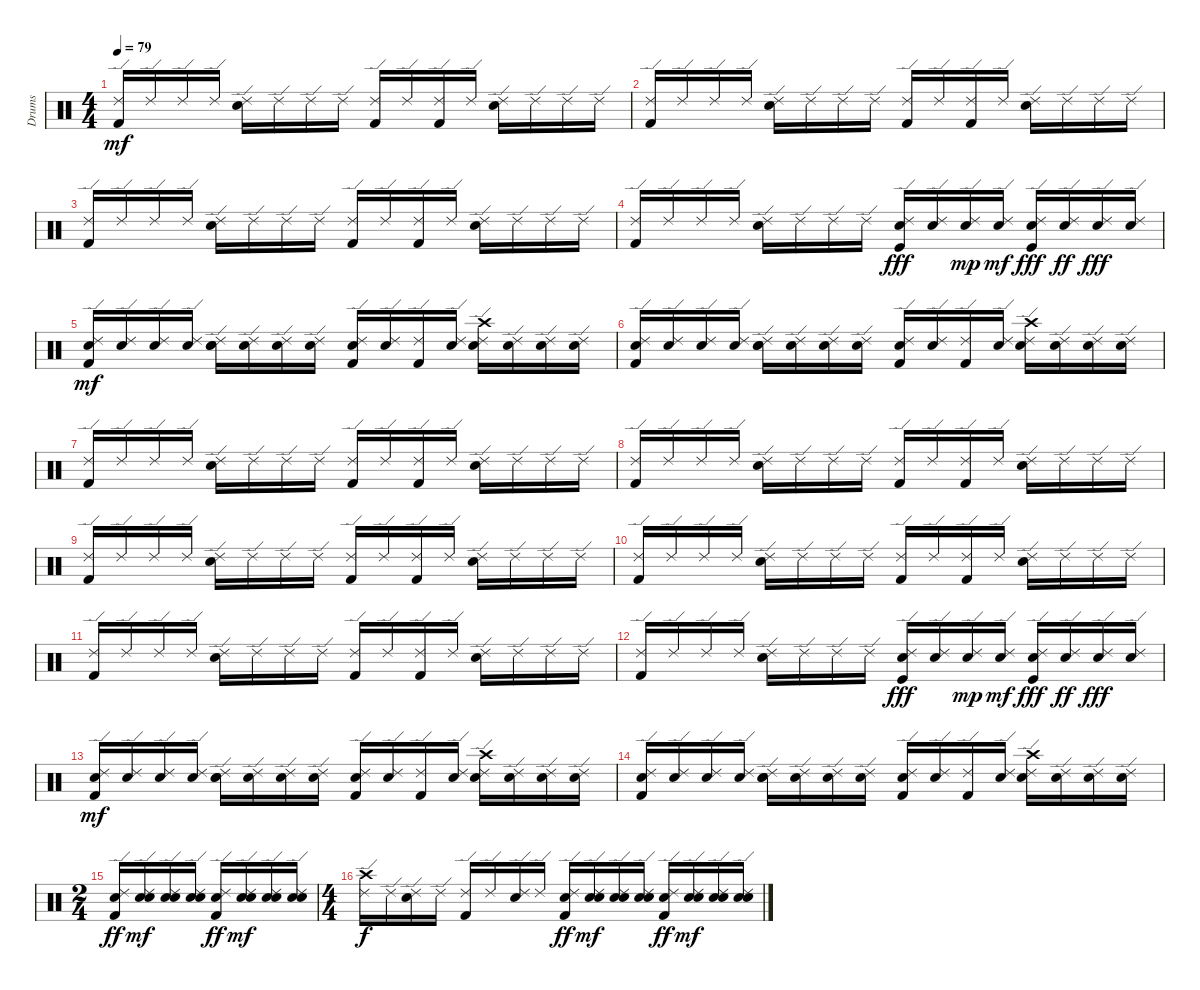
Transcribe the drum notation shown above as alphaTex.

\track ("Drums" "Drums") {instrument percussion}
\staff {score}
\articulation defaults
\ts (4 4)
\tempo 79
\clef neutral
\ks c
("Kick (hit) 2" "Ride (edge) 2").16{dy mf} "Ride (edge) 2".16 "Ride (edge) 2".16 "Ride (edge) 2".16 ("Electric Snare (hit)" "Ride (edge) 2").16 "Ride (edge) 2".16 "Ride (edge) 2".16 "Ride (edge) 2".16 ("Kick (hit) 2" "Ride (edge) 2").16 "Ride (edge) 2".16 ("Kick (hit) 2" "Ride (edge) 2").16 "Ride (edge) 2".16 ("Electric Snare (hit)" "Ride (edge) 2").16 "Ride (edge) 2".16 "Ride (edge) 2".16 "Ride (edge) 2".16 |
("Kick (hit) 2" "Ride (edge) 2").16 "Ride (edge) 2".16 "Ride (edge) 2".16 "Ride (edge) 2".16 ("Electric Snare (hit)" "Ride (edge) 2").16 "Ride (edge) 2".16 "Ride (edge) 2".16 "Ride (edge) 2".16 ("Kick (hit) 2" "Ride (edge) 2").16 "Ride (edge) 2".16 ("Kick (hit) 2" "Ride (edge) 2").16 "Ride (edge) 2".16 ("Electric Snare (hit)" "Ride (edge) 2").16 "Ride (edge) 2".16 "Ride (edge) 2".16 "Ride (edge) 2".16 |
("Kick (hit) 2" "Ride (edge) 2").16 "Ride (edge) 2".16 "Ride (edge) 2".16 "Ride (edge) 2".16 ("Electric Snare (hit)" "Ride (edge) 2").16 "Ride (edge) 2".16 "Ride (edge) 2".16 "Ride (edge) 2".16 ("Kick (hit) 2" "Ride (edge) 2").16 "Ride (edge) 2".16 ("Kick (hit) 2" "Ride (edge) 2").16 "Ride (edge) 2".16 ("Electric Snare (hit)" "Ride (edge) 2").16 "Ride (edge) 2".16 "Ride (edge) 2".16 "Ride (edge) 2".16 |
("Kick (hit) 2" "Ride (edge) 2").16 "Ride (edge) 2".16 "Ride (edge) 2".16 "Ride (edge) 2".16 ("Electric Snare (hit)" "Ride (edge) 2").16 "Ride (edge) 2".16 "Ride (edge) 2".16 "Ride (edge) 2".16 ("Electric Snare (hit)" "Ride (edge) 2" "Kick (hit)").16{dy fff} ("Electric Snare (hit)" "Ride (edge) 2").16 ("Electric Snare (hit)" "Ride (edge) 2").16{dy mp} ("Electric Snare (hit)" "Ride (edge) 2").16{dy mf} ("Electric Snare (hit)" "Ride (edge) 2" "Kick (hit)").16{dy fff} ("Electric Snare (hit)" "Ride (edge) 2").16{dy ff} ("Electric Snare (hit)" "Ride (edge) 2").16{dy fff} ("Electric Snare (hit)" "Ride (edge) 2").16 |
("Kick (hit) 2" "Ride (edge) 2" "Electric Snare (hit)").16{dy mf} ("Snare (hit) 2" "Ride (edge) 2").16 ("Snare (hit) 2" "Ride (edge) 2").16 ("Snare (hit) 2" "Ride (edge) 2").16 ("Electric Snare (hit)" "Ride (edge) 2" "Electric Snare (hit)").16 ("Snare (hit) 2" "Ride (edge) 2").16 ("Snare (hit) 2" "Ride (edge) 2").16 ("Snare (hit) 2" "Ride (edge) 2").16 ("Kick (hit) 2" "Ride (edge) 2" "Electric Snare (hit)").16 ("Snare (hit) 2" "Ride (edge) 2").16 ("Kick (hit) 2" "Ride (edge) 2").16 ("Snare (hit) 2" "Ride (edge) 2").16 ("Electric Snare (hit)" "Ride (edge) 2" "Crash high (hit)").16 ("Snare (hit) 2" "Ride (edge) 2").16 ("Snare (hit) 2" "Ride (edge) 2").16 ("Snare (hit) 2" "Ride (edge) 2").16 |
("Kick (hit) 2" "Ride (edge) 2" "Electric Snare (hit)").16 ("Snare (hit) 2" "Ride (edge) 2").16 ("Snare (hit) 2" "Ride (edge) 2").16 ("Snare (hit) 2" "Ride (edge) 2").16 ("Electric Snare (hit)" "Ride (edge) 2" "Electric Snare (hit)").16 ("Snare (hit) 2" "Ride (edge) 2").16 ("Snare (hit) 2" "Ride (edge) 2").16 ("Snare (hit) 2" "Ride (edge) 2").16 ("Kick (hit) 2" "Ride (edge) 2" "Electric Snare (hit)").16 ("Snare (hit) 2" "Ride (edge) 2").16 ("Kick (hit) 2" "Ride (edge) 2").16 ("Snare (hit) 2" "Ride (edge) 2").16 ("Electric Snare (hit)" "Ride (edge) 2" "Crash high (hit)").16 ("Snare (hit) 2" "Ride (edge) 2").16 ("Snare (hit) 2" "Ride (edge) 2").16 ("Snare (hit) 2" "Ride (edge) 2").16 |
("Kick (hit) 2" "Ride (edge) 2").16 "Ride (edge) 2".16 "Ride (edge) 2".16 "Ride (edge) 2".16 ("Electric Snare (hit)" "Ride (edge) 2").16 "Ride (edge) 2".16 "Ride (edge) 2".16 "Ride (edge) 2".16 ("Kick (hit) 2" "Ride (edge) 2").16 "Ride (edge) 2".16 ("Kick (hit) 2" "Ride (edge) 2").16 "Ride (edge) 2".16 ("Electric Snare (hit)" "Ride (edge) 2").16 "Ride (edge) 2".16 "Ride (edge) 2".16 "Ride (edge) 2".16 |
("Kick (hit) 2" "Ride (edge) 2").16 "Ride (edge) 2".16 "Ride (edge) 2".16 "Ride (edge) 2".16 ("Electric Snare (hit)" "Ride (edge) 2").16 "Ride (edge) 2".16 "Ride (edge) 2".16 "Ride (edge) 2".16 ("Kick (hit) 2" "Ride (edge) 2").16 "Ride (edge) 2".16 ("Kick (hit) 2" "Ride (edge) 2").16 "Ride (edge) 2".16 ("Electric Snare (hit)" "Ride (edge) 2").16 "Ride (edge) 2".16 "Ride (edge) 2".16 "Ride (edge) 2".16 |
("Kick (hit) 2" "Ride (edge) 2").16 "Ride (edge) 2".16 "Ride (edge) 2".16 "Ride (edge) 2".16 ("Electric Snare (hit)" "Ride (edge) 2").16 "Ride (edge) 2".16 "Ride (edge) 2".16 "Ride (edge) 2".16 ("Kick (hit) 2" "Ride (edge) 2").16 "Ride (edge) 2".16 ("Kick (hit) 2" "Ride (edge) 2").16 "Ride (edge) 2".16 ("Electric Snare (hit)" "Ride (edge) 2").16 "Ride (edge) 2".16 "Ride (edge) 2".16 "Ride (edge) 2".16 |
("Kick (hit) 2" "Ride (edge) 2").16 "Ride (edge) 2".16 "Ride (edge) 2".16 "Ride (edge) 2".16 ("Electric Snare (hit)" "Ride (edge) 2").16 "Ride (edge) 2".16 "Ride (edge) 2".16 "Ride (edge) 2".16 ("Kick (hit) 2" "Ride (edge) 2").16 "Ride (edge) 2".16 ("Kick (hit) 2" "Ride (edge) 2").16 "Ride (edge) 2".16 ("Electric Snare (hit)" "Ride (edge) 2").16 "Ride (edge) 2".16 "Ride (edge) 2".16 "Ride (edge) 2".16 |
("Kick (hit) 2" "Ride (edge) 2").16 "Ride (edge) 2".16 "Ride (edge) 2".16 "Ride (edge) 2".16 ("Electric Snare (hit)" "Ride (edge) 2").16 "Ride (edge) 2".16 "Ride (edge) 2".16 "Ride (edge) 2".16 ("Kick (hit) 2" "Ride (edge) 2").16 "Ride (edge) 2".16 ("Kick (hit) 2" "Ride (edge) 2").16 "Ride (edge) 2".16 ("Electric Snare (hit)" "Ride (edge) 2").16 "Ride (edge) 2".16 "Ride (edge) 2".16 "Ride (edge) 2".16 |
("Kick (hit) 2" "Ride (edge) 2").16 "Ride (edge) 2".16 "Ride (edge) 2".16 "Ride (edge) 2".16 ("Electric Snare (hit)" "Ride (edge) 2").16 "Ride (edge) 2".16 "Ride (edge) 2".16 "Ride (edge) 2".16 ("Electric Snare (hit)" "Ride (edge) 2" "Kick (hit)").16{dy fff} ("Electric Snare (hit)" "Ride (edge) 2").16 ("Electric Snare (hit)" "Ride (edge) 2").16{dy mp} ("Electric Snare (hit)" "Ride (edge) 2").16{dy mf} ("Electric Snare (hit)" "Ride (edge) 2" "Kick (hit)").16{dy fff} ("Electric Snare (hit)" "Ride (edge) 2").16{dy ff} ("Electric Snare (hit)" "Ride (edge) 2").16{dy fff} ("Electric Snare (hit)" "Ride (edge) 2").16 |
("Kick (hit) 2" "Ride (edge) 2" "Electric Snare (hit)").16{dy mf} ("Snare (hit) 2" "Ride (edge) 2").16 ("Snare (hit) 2" "Ride (edge) 2").16 ("Snare (hit) 2" "Ride (edge) 2").16 ("Electric Snare (hit)" "Ride (edge) 2" "Electric Snare (hit)").16 ("Snare (hit) 2" "Ride (edge) 2").16 ("Snare (hit) 2" "Ride (edge) 2").16 ("Snare (hit) 2" "Ride (edge) 2").16 ("Kick (hit) 2" "Ride (edge) 2" "Electric Snare (hit)").16 ("Snare (hit) 2" "Ride (edge) 2").16 ("Kick (hit) 2" "Ride (edge) 2").16 ("Snare (hit) 2" "Ride (edge) 2").16 ("Electric Snare (hit)" "Ride (edge) 2" "Crash high (hit)").16 ("Snare (hit) 2" "Ride (edge) 2").16 ("Snare (hit) 2" "Ride (edge) 2").16 ("Snare (hit) 2" "Ride (edge) 2").16 |
("Kick (hit) 2" "Ride (edge) 2" "Electric Snare (hit)").16 ("Snare (hit) 2" "Ride (edge) 2").16 ("Snare (hit) 2" "Ride (edge) 2").16 ("Snare (hit) 2" "Ride (edge) 2").16 ("Electric Snare (hit)" "Ride (edge) 2" "Electric Snare (hit)").16 ("Snare (hit) 2" "Ride (edge) 2").16 ("Snare (hit) 2" "Ride (edge) 2").16 ("Snare (hit) 2" "Ride (edge) 2").16 ("Kick (hit) 2" "Ride (edge) 2" "Electric Snare (hit)").16 ("Snare (hit) 2" "Ride (edge) 2").16 ("Kick (hit) 2" "Ride (edge) 2").16 ("Snare (hit) 2" "Ride (edge) 2").16 ("Electric Snare (hit)" "Ride (edge) 2" "Crash high (hit)").16 ("Snare (hit) 2" "Ride (edge) 2").16 ("Snare (hit) 2" "Ride (edge) 2").16 ("Snare (hit) 2" "Ride (edge) 2").16 |
\ts (2 4)
("Electric Snare (hit)" "Ride (edge) 2" "Kick (hit) 2").16{dy ff} ("Electric Snare (hit)" "Ride (edge) 2" "Snare (hit) 2").16{dy mf} ("Electric Snare (hit)" "Ride (edge) 2" "Snare (hit) 2").16 ("Electric Snare (hit)" "Ride (edge) 2" "Snare (hit) 2").16 ("Electric Snare (hit)" "Ride (edge) 2" "Kick (hit) 2").16{dy ff} ("Electric Snare (hit)" "Ride (edge) 2" "Snare (hit) 2").16{dy mf} ("Electric Snare (hit)" "Ride (edge) 2" "Snare (hit) 2").16 ("Electric Snare (hit)" "Ride (edge) 2" "Snare (hit) 2").16 |
\ts (4 4)
("Crash high (hit)" "Ride (edge) 2").16{dy f} "Ride (edge) 2".16 ("Electric Snare (hit)" "Ride (edge) 2").16 "Ride (edge) 2".16 ("Kick (hit) 2" "Ride (edge) 2").16 "Ride (edge) 2".16 ("Electric Snare (hit)" "Ride (edge) 2").16 "Ride (edge) 2".16 ("Electric Snare (hit)" "Ride (edge) 2" "Kick (hit) 2").16{dy ff} ("Electric Snare (hit)" "Ride (edge) 2" "Snare (hit) 2").16{dy mf} ("Electric Snare (hit)" "Ride (edge) 2" "Snare (hit) 2").16 ("Electric Snare (hit)" "Ride (edge) 2" "Snare (hit) 2").16 ("Electric Snare (hit)" "Ride (edge) 2" "Kick (hit) 2").16{dy ff} ("Electric Snare (hit)" "Ride (edge) 2" "Snare (hit) 2").16{dy mf} ("Electric Snare (hit)" "Ride (edge) 2" "Snare (hit) 2").16 ("Electric Snare (hit)" "Ride (edge) 2" "Snare (hit) 2").16
